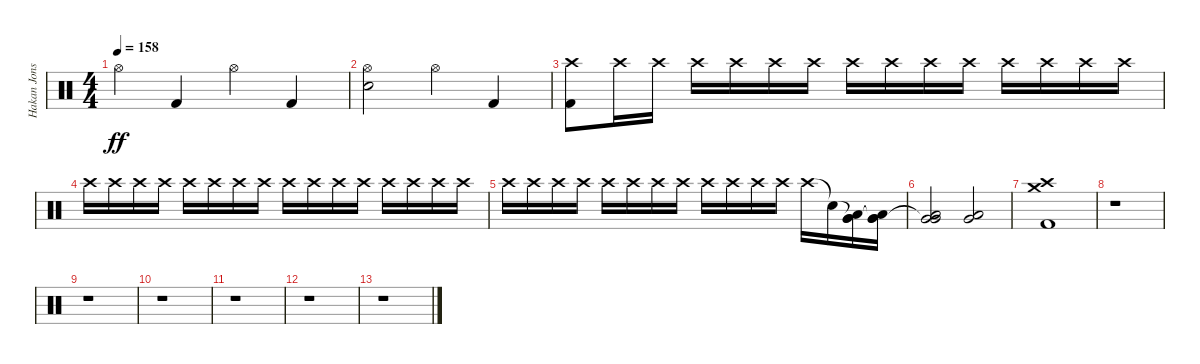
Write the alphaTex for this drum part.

\track ("Hakan Jonsson" "Hakan Jons") {instrument percussion}
\staff {score}
\articulation defaults
\ts (4 4)
\tempo 158
\clef neutral
\ks c "Hi-Hat (open)".4{dy ff} "Kick (hit) 2".4 "Hi-Hat (open)".4 "Kick (hit) 2".4
|
("Hi-Hat (open)" "Electric Snare (hit)").2 "Hi-Hat (open)".4 "Kick (hit) 2".4 |
("Crash high (hit)" "Kick (hit) 2").8 "Crash high (hit)".16{volume 8} "Crash high (hit)".16 "Crash high (hit)".16 "Crash high (hit)".16 "Crash high (hit)".16 "Crash high (hit)".16 "Crash high (hit)".16 "Crash high (hit)".16 "Crash high (hit)".16 "Crash high (hit)".16 "Crash high (hit)".16 "Crash high (hit)".16 "Crash high (hit)".16 "Crash high (hit)".16 |
"Crash high (hit)".16 "Crash high (hit)".16 "Crash high (hit)".16 "Crash high (hit)".16 "Crash high (hit)".16 "Crash high (hit)".16 "Crash high (hit)".16 "Crash high (hit)".16 "Crash high (hit)".16 "Crash high (hit)".16 "Crash high (hit)".16 "Crash high (hit)".16 "Crash high (hit)".16 "Crash high (hit)".16 "Crash high (hit)".16 "Crash high (hit)".16 |
"Crash high (hit)".16{volume 13} "Crash high (hit)".16 "Crash high (hit)".16 "Crash high (hit)".16 "Crash high (hit)".16 "Crash high (hit)".16 "Crash high (hit)".16 "Crash high (hit)".16 "Crash high (hit)".16 "Crash high (hit)".16 "Crash high (hit)".16 "Crash high (hit)".16 "Crash high (hit)".16 "Snare (hit)"{t}.16 ("Very Low Tom (hit)"{t} "Very Low Tom (hit)" "Low Floor Tom (hit)").16{volume 13} ("Very Low Tom (hit)"{t} "Very Low Tom (hit)" "Low Floor Tom (hit)").16 |
("Very Low Tom (hit)"{t} "Very Low Tom (hit)" "Low Floor Tom (hit)").2 ("Very Low Tom (hit)" "Low Floor Tom (hit)").2 |
("Crash medium (hit)" "Crash high (hit)" "Kick (hit) 2").1 |
r.1 |
r.1 |
r.1 |
r.1 |
r.1 |
r.1
